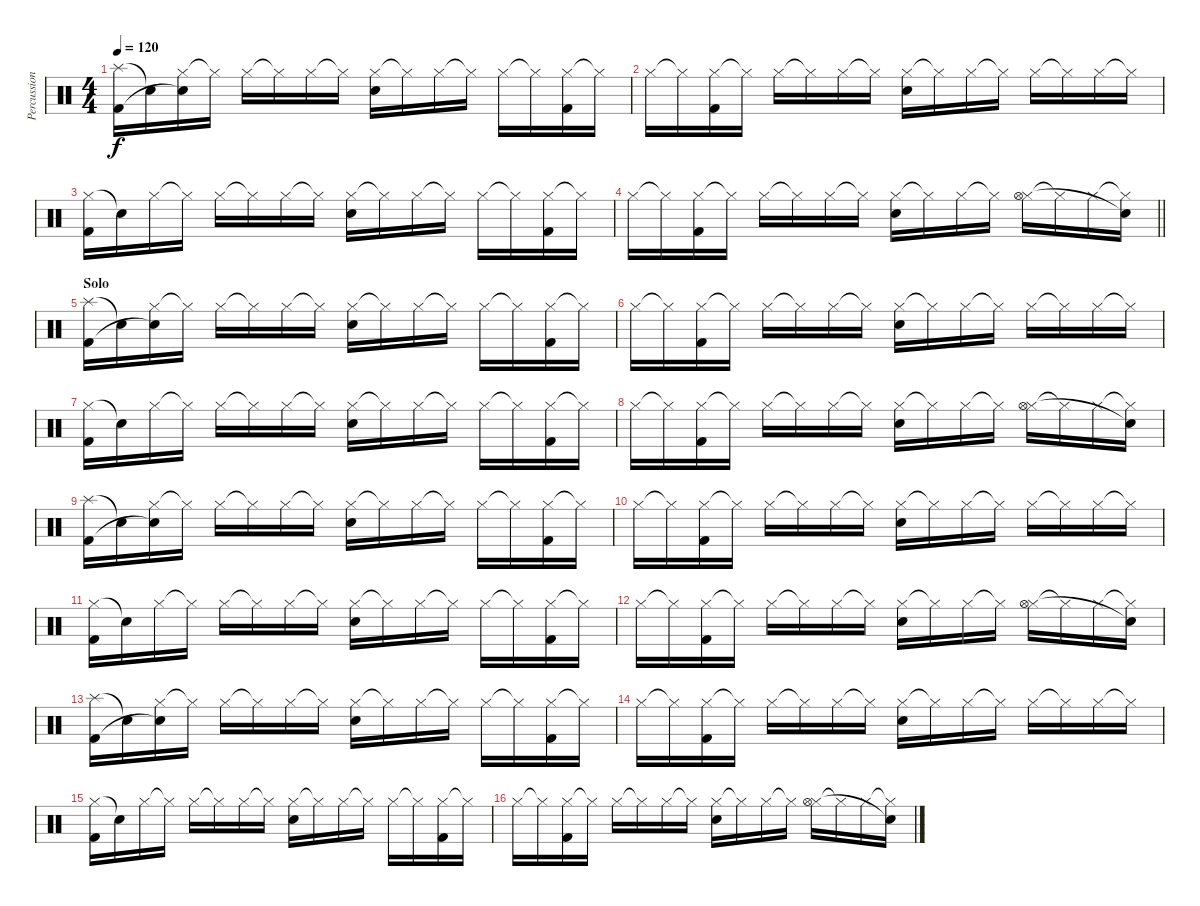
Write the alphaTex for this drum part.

\track ("Percussion" "Percussion") {instrument percussion}
\staff {score}
\articulation defaults
\ts (4 4)
\tempo 120
\clef neutral
\ks c
("Splash (hit)" "Kick (hit) 2").16{dy f} "Snare (hit)"{t}.16 ("Hi-Hat (closed)" "Snare (hit)"{t}).16 "Hi-Hat (closed)"{t}.16 "Hi-Hat (closed)".16 "Hi-Hat (closed)"{t}.16 "Hi-Hat (closed)".16 "Hi-Hat (closed)"{t}.16 ("Hi-Hat (closed)" "Snare (hit) 2").16 "Hi-Hat (closed)"{t}.16 "Hi-Hat (closed)".16 "Hi-Hat (closed)"{t}.16 "Hi-Hat (closed)".16 "Hi-Hat (closed)"{t}.16 ("Hi-Hat (closed)" "Kick (hit) 2").16 "Hi-Hat (closed)"{t}.16 |
"Hi-Hat (closed)".16 "Hi-Hat (closed)"{t}.16 ("Hi-Hat (closed)" "Kick (hit) 2").16 "Hi-Hat (closed)"{t}.16 "Hi-Hat (closed)".16 "Hi-Hat (closed)"{t}.16 "Hi-Hat (closed)".16 "Hi-Hat (closed)"{t}.16 ("Hi-Hat (closed)" "Snare (hit) 2").16 "Hi-Hat (closed)"{t}.16 "Hi-Hat (closed)".16 "Hi-Hat (closed)"{t}.16 "Hi-Hat (closed)".16 "Hi-Hat (closed)"{t}.16 "Hi-Hat (closed)".16 "Hi-Hat (closed)"{t}.16 |
("Hi-Hat (closed)" "Kick (hit) 2").16 "Snare (hit)"{t}.16 "Hi-Hat (closed)".16 "Hi-Hat (closed)"{t}.16 "Hi-Hat (closed)".16 "Hi-Hat (closed)"{t}.16 "Hi-Hat (closed)".16 "Hi-Hat (closed)"{t}.16 ("Hi-Hat (closed)" "Snare (hit) 2").16 "Hi-Hat (closed)"{t}.16 "Hi-Hat (closed)".16 "Hi-Hat (closed)"{t}.16 "Hi-Hat (closed)".16 "Hi-Hat (closed)"{t}.16 ("Hi-Hat (closed)" "Kick (hit) 2").16 "Hi-Hat (closed)"{t}.16 |
\barLineRight lightlight "Hi-Hat (closed)".16 "Hi-Hat (closed)"{t}.16
("Hi-Hat (closed)" "Kick (hit) 2").16 "Hi-Hat (closed)"{t}.16 "Hi-Hat (closed)".16 "Hi-Hat (closed)"{t}.16 "Hi-Hat (closed)".16 "Hi-Hat (closed)"{t}.16 ("Hi-Hat (closed)" "Snare (hit) 2").16 "Hi-Hat (closed)"{t}.16 "Hi-Hat (closed)".16 "Hi-Hat (closed)"{t}.16 ("Hi-Hat (closed)" "Hi-Hat (open)").16 "Hi-Hat (closed)"{t}.16 "Hi-Hat (closed)".16 ("Hi-Hat (closed)"{t} "Snare (hit)"{t}).16 |
\section ("" "Solo")
("Splash (hit)" "Kick (hit) 2").16 "Snare (hit)"{t}.16 ("Hi-Hat (closed)" "Snare (hit)"{t}).16 "Hi-Hat (closed)"{t}.16 "Hi-Hat (closed)".16 "Hi-Hat (closed)"{t}.16 "Hi-Hat (closed)".16 "Hi-Hat (closed)"{t}.16 ("Hi-Hat (closed)" "Snare (hit) 2").16 "Hi-Hat (closed)"{t}.16 "Hi-Hat (closed)".16 "Hi-Hat (closed)"{t}.16 "Hi-Hat (closed)".16 "Hi-Hat (closed)"{t}.16 ("Hi-Hat (closed)" "Kick (hit) 2").16 "Hi-Hat (closed)"{t}.16 |
"Hi-Hat (closed)".16 "Hi-Hat (closed)"{t}.16 ("Hi-Hat (closed)" "Kick (hit) 2").16 "Hi-Hat (closed)"{t}.16 "Hi-Hat (closed)".16 "Hi-Hat (closed)"{t}.16 "Hi-Hat (closed)".16 "Hi-Hat (closed)"{t}.16 ("Hi-Hat (closed)" "Snare (hit) 2").16 "Hi-Hat (closed)"{t}.16 "Hi-Hat (closed)".16 "Hi-Hat (closed)"{t}.16 "Hi-Hat (closed)".16 "Hi-Hat (closed)"{t}.16 "Hi-Hat (closed)".16 "Hi-Hat (closed)"{t}.16 |
("Hi-Hat (closed)" "Kick (hit) 2").16 "Snare (hit)"{t}.16 "Hi-Hat (closed)".16 "Hi-Hat (closed)"{t}.16 "Hi-Hat (closed)".16 "Hi-Hat (closed)"{t}.16 "Hi-Hat (closed)".16 "Hi-Hat (closed)"{t}.16 ("Hi-Hat (closed)" "Snare (hit) 2").16 "Hi-Hat (closed)"{t}.16 "Hi-Hat (closed)".16 "Hi-Hat (closed)"{t}.16 "Hi-Hat (closed)".16 "Hi-Hat (closed)"{t}.16 ("Hi-Hat (closed)" "Kick (hit) 2").16 "Hi-Hat (closed)"{t}.16 |
"Hi-Hat (closed)".16 "Hi-Hat (closed)"{t}.16 ("Hi-Hat (closed)" "Kick (hit) 2").16 "Hi-Hat (closed)"{t}.16 "Hi-Hat (closed)".16 "Hi-Hat (closed)"{t}.16 "Hi-Hat (closed)".16 "Hi-Hat (closed)"{t}.16 ("Hi-Hat (closed)" "Snare (hit) 2").16 "Hi-Hat (closed)"{t}.16 "Hi-Hat (closed)".16 "Hi-Hat (closed)"{t}.16 ("Hi-Hat (closed)" "Hi-Hat (open)").16 "Hi-Hat (closed)"{t}.16 "Hi-Hat (closed)".16 ("Hi-Hat (closed)"{t} "Snare (hit)"{t}).16 |
("Splash (hit)" "Kick (hit) 2").16 "Snare (hit)"{t}.16 ("Hi-Hat (closed)" "Snare (hit)"{t}).16 "Hi-Hat (closed)"{t}.16 "Hi-Hat (closed)".16 "Hi-Hat (closed)"{t}.16 "Hi-Hat (closed)".16 "Hi-Hat (closed)"{t}.16 ("Hi-Hat (closed)" "Snare (hit) 2").16 "Hi-Hat (closed)"{t}.16 "Hi-Hat (closed)".16 "Hi-Hat (closed)"{t}.16 "Hi-Hat (closed)".16 "Hi-Hat (closed)"{t}.16 ("Hi-Hat (closed)" "Kick (hit) 2").16 "Hi-Hat (closed)"{t}.16 |
"Hi-Hat (closed)".16 "Hi-Hat (closed)"{t}.16 ("Hi-Hat (closed)" "Kick (hit) 2").16 "Hi-Hat (closed)"{t}.16 "Hi-Hat (closed)".16 "Hi-Hat (closed)"{t}.16 "Hi-Hat (closed)".16 "Hi-Hat (closed)"{t}.16 ("Hi-Hat (closed)" "Snare (hit) 2").16 "Hi-Hat (closed)"{t}.16 "Hi-Hat (closed)".16 "Hi-Hat (closed)"{t}.16 "Hi-Hat (closed)".16 "Hi-Hat (closed)"{t}.16 "Hi-Hat (closed)".16 "Hi-Hat (closed)"{t}.16 |
("Hi-Hat (closed)" "Kick (hit) 2").16 "Snare (hit)"{t}.16 "Hi-Hat (closed)".16 "Hi-Hat (closed)"{t}.16 "Hi-Hat (closed)".16 "Hi-Hat (closed)"{t}.16 "Hi-Hat (closed)".16 "Hi-Hat (closed)"{t}.16 ("Hi-Hat (closed)" "Snare (hit) 2").16 "Hi-Hat (closed)"{t}.16 "Hi-Hat (closed)".16 "Hi-Hat (closed)"{t}.16 "Hi-Hat (closed)".16 "Hi-Hat (closed)"{t}.16 ("Hi-Hat (closed)" "Kick (hit) 2").16 "Hi-Hat (closed)"{t}.16 |
"Hi-Hat (closed)".16 "Hi-Hat (closed)"{t}.16 ("Hi-Hat (closed)" "Kick (hit) 2").16 "Hi-Hat (closed)"{t}.16 "Hi-Hat (closed)".16 "Hi-Hat (closed)"{t}.16 "Hi-Hat (closed)".16 "Hi-Hat (closed)"{t}.16 ("Hi-Hat (closed)" "Snare (hit) 2").16 "Hi-Hat (closed)"{t}.16 "Hi-Hat (closed)".16 "Hi-Hat (closed)"{t}.16 ("Hi-Hat (closed)" "Hi-Hat (open)").16 "Hi-Hat (closed)"{t}.16 "Hi-Hat (closed)".16 ("Hi-Hat (closed)"{t} "Snare (hit)"{t}).16 |
("Splash (hit)" "Kick (hit) 2").16 "Snare (hit)"{t}.16 ("Hi-Hat (closed)" "Snare (hit)"{t}).16 "Hi-Hat (closed)"{t}.16 "Hi-Hat (closed)".16 "Hi-Hat (closed)"{t}.16 "Hi-Hat (closed)".16 "Hi-Hat (closed)"{t}.16 ("Hi-Hat (closed)" "Snare (hit) 2").16 "Hi-Hat (closed)"{t}.16 "Hi-Hat (closed)".16 "Hi-Hat (closed)"{t}.16 "Hi-Hat (closed)".16 "Hi-Hat (closed)"{t}.16 ("Hi-Hat (closed)" "Kick (hit) 2").16 "Hi-Hat (closed)"{t}.16 |
"Hi-Hat (closed)".16 "Hi-Hat (closed)"{t}.16 ("Hi-Hat (closed)" "Kick (hit) 2").16 "Hi-Hat (closed)"{t}.16 "Hi-Hat (closed)".16 "Hi-Hat (closed)"{t}.16 "Hi-Hat (closed)".16 "Hi-Hat (closed)"{t}.16 ("Hi-Hat (closed)" "Snare (hit) 2").16 "Hi-Hat (closed)"{t}.16 "Hi-Hat (closed)".16 "Hi-Hat (closed)"{t}.16 "Hi-Hat (closed)".16 "Hi-Hat (closed)"{t}.16 "Hi-Hat (closed)".16 "Hi-Hat (closed)"{t}.16 |
("Hi-Hat (closed)" "Kick (hit) 2").16 "Snare (hit)"{t}.16 "Hi-Hat (closed)".16 "Hi-Hat (closed)"{t}.16 "Hi-Hat (closed)".16 "Hi-Hat (closed)"{t}.16 "Hi-Hat (closed)".16 "Hi-Hat (closed)"{t}.16 ("Hi-Hat (closed)" "Snare (hit) 2").16 "Hi-Hat (closed)"{t}.16 "Hi-Hat (closed)".16 "Hi-Hat (closed)"{t}.16 "Hi-Hat (closed)".16 "Hi-Hat (closed)"{t}.16 ("Hi-Hat (closed)" "Kick (hit) 2").16 "Hi-Hat (closed)"{t}.16 |
"Hi-Hat (closed)".16 "Hi-Hat (closed)"{t}.16 ("Hi-Hat (closed)" "Kick (hit) 2").16 "Hi-Hat (closed)"{t}.16 "Hi-Hat (closed)".16 "Hi-Hat (closed)"{t}.16 "Hi-Hat (closed)".16 "Hi-Hat (closed)"{t}.16 ("Hi-Hat (closed)" "Snare (hit) 2").16 "Hi-Hat (closed)"{t}.16 "Hi-Hat (closed)".16 "Hi-Hat (closed)"{t}.16 ("Hi-Hat (closed)" "Hi-Hat (open)").16 "Hi-Hat (closed)"{t}.16 "Hi-Hat (closed)".16 ("Hi-Hat (closed)"{t} "Snare (hit)"{t}).16
